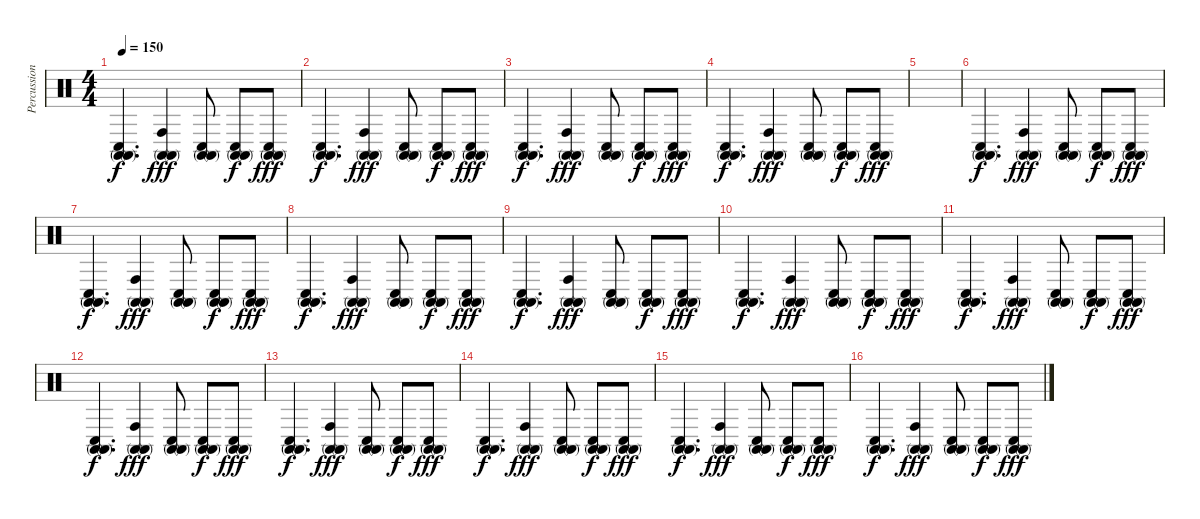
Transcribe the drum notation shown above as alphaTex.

\track ("Percussion2" "Percussion") {instrument percussion}
\staff {score}
\articulation defaults
\ts (4 4)
\tempo 150
\clef neutral
\ks aminor
("Conga high (mute)" "Conga high (mute)" "Conga low (hit)").4{d dy f} ("Conga high (mute)" "Conga high (mute)" "Conga high (hit)").4{dy fff} ("Conga high (mute)" "Conga high (mute)" "Conga low (hit)").8 ("Conga high (mute)" "Conga high (mute)" "Conga low (hit)").8{dy f} ("Conga high (mute)" "Conga high (mute)" "Conga low (hit)").8{dy fff} |
("Conga high (mute)" "Conga high (mute)" "Conga low (hit)").4{d dy f} ("Conga high (mute)" "Conga high (mute)" "Conga high (hit)").4{dy fff} ("Conga high (mute)" "Conga high (mute)" "Conga low (hit)").8 ("Conga high (mute)" "Conga high (mute)" "Conga low (hit)").8{dy f} ("Conga high (mute)" "Conga high (mute)" "Conga low (hit)").8{dy fff} |
("Conga high (mute)" "Conga high (mute)" "Conga low (hit)").4{d dy f} ("Conga high (mute)" "Conga high (mute)" "Conga high (hit)").4{dy fff} ("Conga high (mute)" "Conga high (mute)" "Conga low (hit)").8 ("Conga high (mute)" "Conga high (mute)" "Conga low (hit)").8{dy f} ("Conga high (mute)" "Conga high (mute)" "Conga low (hit)").8{dy fff} |
("Conga high (mute)" "Conga high (mute)" "Conga low (hit)").4{d dy f} ("Conga high (mute)" "Conga high (mute)" "Conga high (hit)").4{dy fff} ("Conga high (mute)" "Conga high (mute)" "Conga low (hit)").8 ("Conga high (mute)" "Conga high (mute)" "Conga low (hit)").8{dy f} ("Conga high (mute)" "Conga high (mute)" "Conga low (hit)").8{dy fff} |
|
("Conga high (mute)" "Conga high (mute)" "Conga low (hit)").4{d dy f} ("Conga high (mute)" "Conga high (mute)" "Conga high (hit)").4{dy fff} ("Conga high (mute)" "Conga high (mute)" "Conga low (hit)").8 ("Conga high (mute)" "Conga high (mute)" "Conga low (hit)").8{dy f} ("Conga high (mute)" "Conga high (mute)" "Conga low (hit)").8{dy fff} |
("Conga high (mute)" "Conga high (mute)" "Conga low (hit)").4{d dy f} ("Conga high (mute)" "Conga high (mute)" "Conga high (hit)").4{dy fff} ("Conga high (mute)" "Conga high (mute)" "Conga low (hit)").8 ("Conga high (mute)" "Conga high (mute)" "Conga low (hit)").8{dy f} ("Conga high (mute)" "Conga high (mute)" "Conga low (hit)").8{dy fff} |
("Conga high (mute)" "Conga high (mute)" "Conga low (hit)").4{d dy f} ("Conga high (mute)" "Conga high (mute)" "Conga high (hit)").4{dy fff} ("Conga high (mute)" "Conga high (mute)" "Conga low (hit)").8 ("Conga high (mute)" "Conga high (mute)" "Conga low (hit)").8{dy f} ("Conga high (mute)" "Conga high (mute)" "Conga low (hit)").8{dy fff} |
("Conga high (mute)" "Conga high (mute)" "Conga low (hit)").4{d dy f} ("Conga high (mute)" "Conga high (mute)" "Conga high (hit)").4{dy fff} ("Conga high (mute)" "Conga high (mute)" "Conga low (hit)").8 ("Conga high (mute)" "Conga high (mute)" "Conga low (hit)").8{dy f} ("Conga high (mute)" "Conga high (mute)" "Conga low (hit)").8{dy fff} |
("Conga high (mute)" "Conga high (mute)" "Conga low (hit)").4{d dy f} ("Conga high (mute)" "Conga high (mute)" "Conga high (hit)").4{dy fff} ("Conga high (mute)" "Conga high (mute)" "Conga low (hit)").8 ("Conga high (mute)" "Conga high (mute)" "Conga low (hit)").8{dy f} ("Conga high (mute)" "Conga high (mute)" "Conga low (hit)").8{dy fff} |
("Conga high (mute)" "Conga high (mute)" "Conga low (hit)").4{d dy f} ("Conga high (mute)" "Conga high (mute)" "Conga high (hit)").4{dy fff} ("Conga high (mute)" "Conga high (mute)" "Conga low (hit)").8 ("Conga high (mute)" "Conga high (mute)" "Conga low (hit)").8{dy f} ("Conga high (mute)" "Conga high (mute)" "Conga low (hit)").8{dy fff} |
("Conga high (mute)" "Conga high (mute)" "Conga low (hit)").4{d dy f} ("Conga high (mute)" "Conga high (mute)" "Conga high (hit)").4{dy fff} ("Conga high (mute)" "Conga high (mute)" "Conga low (hit)").8 ("Conga high (mute)" "Conga high (mute)" "Conga low (hit)").8{dy f} ("Conga high (mute)" "Conga high (mute)" "Conga low (hit)").8{dy fff} |
("Conga high (mute)" "Conga high (mute)" "Conga low (hit)").4{d dy f} ("Conga high (mute)" "Conga high (mute)" "Conga high (hit)").4{dy fff} ("Conga high (mute)" "Conga high (mute)" "Conga low (hit)").8 ("Conga high (mute)" "Conga high (mute)" "Conga low (hit)").8{dy f} ("Conga high (mute)" "Conga high (mute)" "Conga low (hit)").8{dy fff} |
("Conga high (mute)" "Conga high (mute)" "Conga low (hit)").4{d dy f} ("Conga high (mute)" "Conga high (mute)" "Conga high (hit)").4{dy fff} ("Conga high (mute)" "Conga high (mute)" "Conga low (hit)").8 ("Conga high (mute)" "Conga high (mute)" "Conga low (hit)").8{dy f} ("Conga high (mute)" "Conga high (mute)" "Conga low (hit)").8{dy fff} |
("Conga high (mute)" "Conga high (mute)" "Conga low (hit)").4{d dy f} ("Conga high (mute)" "Conga high (mute)" "Conga high (hit)").4{dy fff} ("Conga high (mute)" "Conga high (mute)" "Conga low (hit)").8 ("Conga high (mute)" "Conga high (mute)" "Conga low (hit)").8{dy f} ("Conga high (mute)" "Conga high (mute)" "Conga low (hit)").8{dy fff} |
("Conga high (mute)" "Conga high (mute)" "Conga low (hit)").4{d dy f} ("Conga high (mute)" "Conga high (mute)" "Conga high (hit)").4{dy fff} ("Conga high (mute)" "Conga high (mute)" "Conga low (hit)").8 ("Conga high (mute)" "Conga high (mute)" "Conga low (hit)").8{dy f} ("Conga high (mute)" "Conga high (mute)" "Conga low (hit)").8{dy fff}
